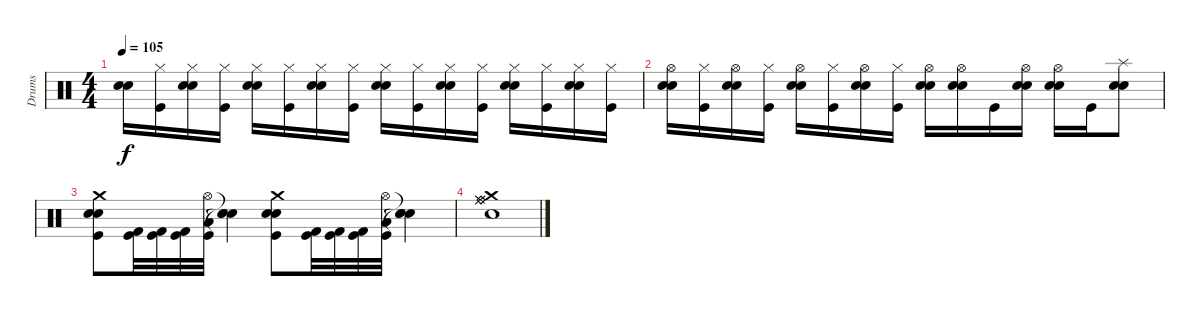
\track ("Drums" "Drums") {instrument percussion}
\staff {score}
\articulation defaults
\ts (4 4)
\tempo 105
\clef neutral
\ks c
("Electric Snare (hit)" "Snare (hit) 2").16{dy f} ("Hi-Hat (closed)" "Kick (hit)").16 ("Electric Snare (hit)" "Hi-Hat (closed)" "Snare (hit) 2").16 ("Hi-Hat (closed)" "Kick (hit)").16 ("Electric Snare (hit)" "Hi-Hat (closed)" "Snare (hit) 2").16 ("Hi-Hat (closed)" "Kick (hit)").16 ("Electric Snare (hit)" "Hi-Hat (closed)" "Snare (hit) 2").16 ("Hi-Hat (closed)" "Kick (hit)").16 ("Electric Snare (hit)" "Hi-Hat (closed)" "Snare (hit) 2").16 ("Hi-Hat (closed)" "Kick (hit)").16 ("Electric Snare (hit)" "Hi-Hat (closed)" "Snare (hit) 2").16 ("Hi-Hat (closed)" "Kick (hit)").16 ("Electric Snare (hit)" "Hi-Hat (closed)" "Snare (hit) 2").16 ("Hi-Hat (closed)" "Kick (hit)").16 ("Electric Snare (hit)" "Hi-Hat (closed)" "Snare (hit) 2").16 ("Hi-Hat (closed)" "Kick (hit)").16 |
("Electric Snare (hit)" "Hi-Hat (open)" "Snare (hit) 2").16 ("Hi-Hat (closed)" "Kick (hit)").16 ("Electric Snare (hit)" "Hi-Hat (open)" "Snare (hit) 2").16 ("Hi-Hat (closed)" "Kick (hit)").16 ("Electric Snare (hit)" "Hi-Hat (open)" "Snare (hit) 2").16 ("Hi-Hat (closed)" "Kick (hit)").16 ("Electric Snare (hit)" "Hi-Hat (open)" "Snare (hit) 2").16 ("Hi-Hat (closed)" "Kick (hit)").16 ("Electric Snare (hit)" "Hi-Hat (open)" "Snare (hit) 2").16 ("Electric Snare (hit)" "Hi-Hat (open)" "Snare (hit) 2").16 "Kick (hit)".16 ("Snare (hit) 2" "Hi-Hat (open)" "Electric Snare (hit)").16 ("Snare (hit) 2" "Electric Snare (hit)" "Hi-Hat (open)").16 "Kick (hit)".16 ("Snare (hit) 2" "Splash (hit)" "Electric Snare (hit)").8 |
("Crash medium (hit)" "Snare (hit) 2" "Kick (hit)" "Electric Snare (hit)").8 ("Kick (hit) 2" "Kick (hit)").32 ("Kick (hit) 2" "Kick (hit)").32 ("Kick (hit) 2" "Kick (hit)").32 ("Hi-Hat (open)" "Kick (hit)" "Low Floor Tom (hit)").32 ("Snare (hit)"{t} "Snare (hit)"{t} "Snare (hit)"{t}).4 ("Crash medium (hit)" "Snare (hit) 2" "Kick (hit)" "Electric Snare (hit)").8 ("Kick (hit)" "Kick (hit) 2").32 ("Kick (hit)" "Kick (hit) 2").32 ("Kick (hit)" "Kick (hit) 2").32 ("Hi-Hat (open)" "Kick (hit)" "Low Floor Tom (hit)").32 ("Snare (hit)"{t} "Snare (hit)"{t} "Snare (hit)"{t}).4 |
("Crash medium (hit)" "Ride (middle)" "Ride (bell)" "Ride (middle)" "Ride (bell)" "Electric Snare (hit)").1
